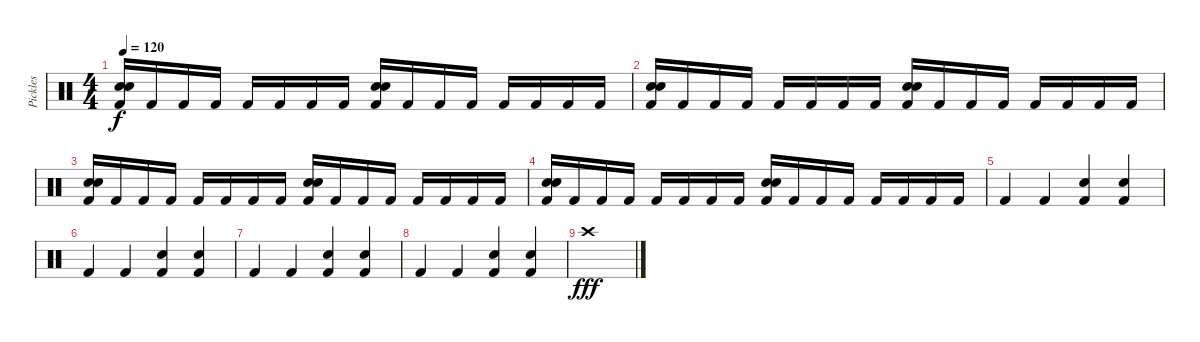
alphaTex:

\track ("Pickles" "Pickles") {instrument percussion}
\staff {score}
\articulation defaults
\ts (4 4)
\tempo 120
\clef neutral
\ks c
("Electric Snare (hit)" "Snare (hit) 2" "Kick (hit) 2").16{dy f} "Kick (hit) 2".16 "Kick (hit) 2".16 "Kick (hit) 2".16 "Kick (hit) 2".16 "Kick (hit) 2".16 "Kick (hit) 2".16 "Kick (hit) 2".16 ("Electric Snare (hit)" "Snare (hit) 2" "Kick (hit) 2").16 "Kick (hit) 2".16 "Kick (hit) 2".16 "Kick (hit) 2".16 "Kick (hit) 2".16 "Kick (hit) 2".16 "Kick (hit) 2".16 "Kick (hit) 2".16 |
("Electric Snare (hit)" "Snare (hit) 2" "Kick (hit) 2").16 "Kick (hit) 2".16 "Kick (hit) 2".16 "Kick (hit) 2".16 "Kick (hit) 2".16 "Kick (hit) 2".16 "Kick (hit) 2".16 "Kick (hit) 2".16 ("Electric Snare (hit)" "Snare (hit) 2" "Kick (hit) 2").16 "Kick (hit) 2".16 "Kick (hit) 2".16 "Kick (hit) 2".16 "Kick (hit) 2".16 "Kick (hit) 2".16 "Kick (hit) 2".16 "Kick (hit) 2".16 |
("Electric Snare (hit)" "Snare (hit) 2" "Kick (hit) 2").16 "Kick (hit) 2".16 "Kick (hit) 2".16 "Kick (hit) 2".16 "Kick (hit) 2".16 "Kick (hit) 2".16 "Kick (hit) 2".16 "Kick (hit) 2".16 ("Electric Snare (hit)" "Snare (hit) 2" "Kick (hit) 2").16 "Kick (hit) 2".16 "Kick (hit) 2".16 "Kick (hit) 2".16 "Kick (hit) 2".16 "Kick (hit) 2".16 "Kick (hit) 2".16 "Kick (hit) 2".16 |
("Electric Snare (hit)" "Snare (hit) 2" "Kick (hit) 2").16 "Kick (hit) 2".16 "Kick (hit) 2".16 "Kick (hit) 2".16 "Kick (hit) 2".16 "Kick (hit) 2".16 "Kick (hit) 2".16 "Kick (hit) 2".16 ("Electric Snare (hit)" "Snare (hit) 2" "Kick (hit) 2").16 "Kick (hit) 2".16 "Kick (hit) 2".16 "Kick (hit) 2".16 "Kick (hit) 2".16 "Kick (hit) 2".16 "Kick (hit) 2".16 "Kick (hit) 2".16 |
"Kick (hit) 2".4 "Kick (hit) 2".4 ("Snare (hit) 2" "Kick (hit) 2").4 ("Electric Snare (hit)" "Kick (hit) 2").4 |
"Kick (hit) 2".4 "Kick (hit) 2".4 ("Snare (hit) 2" "Kick (hit) 2").4 ("Electric Snare (hit)" "Kick (hit) 2").4 |
"Kick (hit) 2".4 "Kick (hit) 2".4 ("Snare (hit) 2" "Kick (hit) 2").4 ("Electric Snare (hit)" "Kick (hit) 2").4 |
"Kick (hit) 2".4 "Kick (hit) 2".4 ("Snare (hit) 2" "Kick (hit) 2").4 ("Electric Snare (hit)" "Kick (hit) 2").4 |
"Crash high (hit)".1{dy fff}
